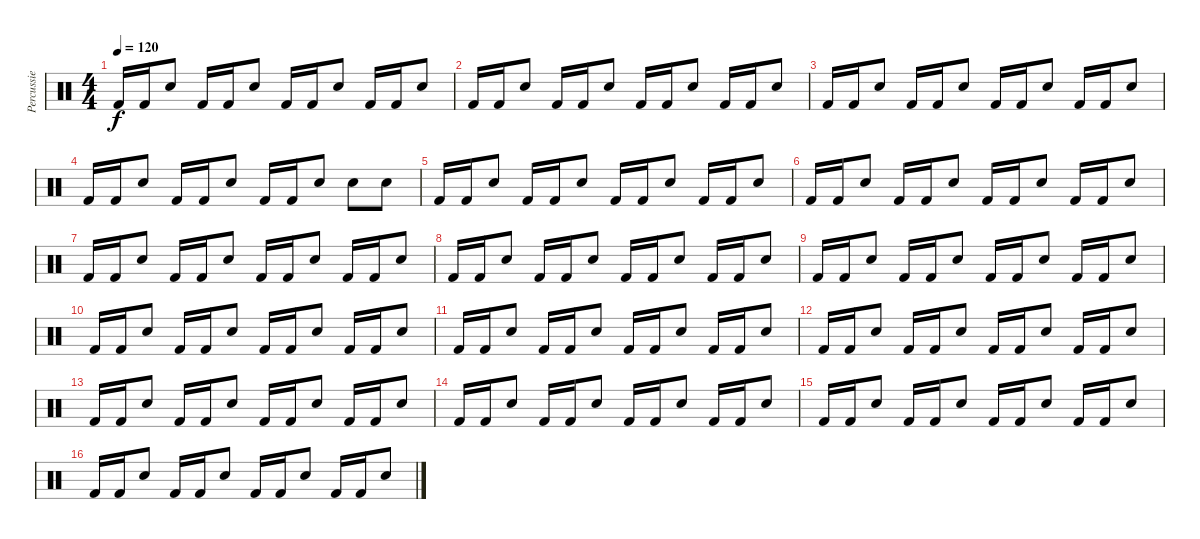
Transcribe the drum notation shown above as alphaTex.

\track ("Percussie" "Percussie") {instrument percussion}
\staff {score}
\articulation defaults
\ts (4 4)
\tempo 120
\clef neutral
\ks c "Kick (hit) 2".16{dy f} "Kick (hit) 2".16 "Electric Snare (hit)".8 "Kick (hit) 2".16 "Kick (hit) 2".16 "Electric Snare (hit)".8 "Kick (hit) 2".16 "Kick (hit) 2".16 "Electric Snare (hit)".8 "Kick (hit) 2".16 "Kick (hit) 2".16 "Electric Snare (hit)".8
|
"Kick (hit) 2".16 "Kick (hit) 2".16 "Electric Snare (hit)".8 "Kick (hit) 2".16 "Kick (hit) 2".16 "Electric Snare (hit)".8 "Kick (hit) 2".16 "Kick (hit) 2".16 "Electric Snare (hit)".8 "Kick (hit) 2".16 "Kick (hit) 2".16 "Electric Snare (hit)".8 |
"Kick (hit) 2".16 "Kick (hit) 2".16 "Electric Snare (hit)".8 "Kick (hit) 2".16 "Kick (hit) 2".16 "Electric Snare (hit)".8 "Kick (hit) 2".16 "Kick (hit) 2".16 "Electric Snare (hit)".8 "Kick (hit) 2".16 "Kick (hit) 2".16 "Electric Snare (hit)".8 |
"Kick (hit) 2".16 "Kick (hit) 2".16 "Electric Snare (hit)".8 "Kick (hit) 2".16 "Kick (hit) 2".16 "Electric Snare (hit)".8 "Kick (hit) 2".16 "Kick (hit) 2".16 "Electric Snare (hit)".8 "Electric Snare (hit)".8 "Electric Snare (hit)".8 |
"Kick (hit) 2".16 "Kick (hit) 2".16 "Electric Snare (hit)".8 "Kick (hit) 2".16 "Kick (hit) 2".16 "Electric Snare (hit)".8 "Kick (hit) 2".16 "Kick (hit) 2".16 "Electric Snare (hit)".8 "Kick (hit) 2".16 "Kick (hit) 2".16 "Electric Snare (hit)".8 |
"Kick (hit) 2".16 "Kick (hit) 2".16 "Electric Snare (hit)".8 "Kick (hit) 2".16 "Kick (hit) 2".16 "Electric Snare (hit)".8 "Kick (hit) 2".16 "Kick (hit) 2".16 "Electric Snare (hit)".8 "Kick (hit) 2".16 "Kick (hit) 2".16 "Electric Snare (hit)".8 |
"Kick (hit) 2".16 "Kick (hit) 2".16 "Electric Snare (hit)".8 "Kick (hit) 2".16 "Kick (hit) 2".16 "Electric Snare (hit)".8 "Kick (hit) 2".16 "Kick (hit) 2".16 "Electric Snare (hit)".8 "Kick (hit) 2".16 "Kick (hit) 2".16 "Electric Snare (hit)".8 |
"Kick (hit) 2".16 "Kick (hit) 2".16 "Electric Snare (hit)".8 "Kick (hit) 2".16 "Kick (hit) 2".16 "Electric Snare (hit)".8 "Kick (hit) 2".16 "Kick (hit) 2".16 "Electric Snare (hit)".8 "Kick (hit) 2".16 "Kick (hit) 2".16 "Electric Snare (hit)".8 |
"Kick (hit) 2".16 "Kick (hit) 2".16 "Electric Snare (hit)".8 "Kick (hit) 2".16 "Kick (hit) 2".16 "Electric Snare (hit)".8 "Kick (hit) 2".16 "Kick (hit) 2".16 "Electric Snare (hit)".8 "Kick (hit) 2".16 "Kick (hit) 2".16 "Electric Snare (hit)".8 |
"Kick (hit) 2".16 "Kick (hit) 2".16 "Electric Snare (hit)".8 "Kick (hit) 2".16 "Kick (hit) 2".16 "Electric Snare (hit)".8 "Kick (hit) 2".16 "Kick (hit) 2".16 "Electric Snare (hit)".8 "Kick (hit) 2".16 "Kick (hit) 2".16 "Electric Snare (hit)".8 |
"Kick (hit) 2".16 "Kick (hit) 2".16 "Electric Snare (hit)".8 "Kick (hit) 2".16 "Kick (hit) 2".16 "Electric Snare (hit)".8 "Kick (hit) 2".16 "Kick (hit) 2".16 "Electric Snare (hit)".8 "Kick (hit) 2".16 "Kick (hit) 2".16 "Electric Snare (hit)".8 |
"Kick (hit) 2".16 "Kick (hit) 2".16 "Electric Snare (hit)".8 "Kick (hit) 2".16 "Kick (hit) 2".16 "Electric Snare (hit)".8 "Kick (hit) 2".16 "Kick (hit) 2".16 "Electric Snare (hit)".8 "Kick (hit) 2".16 "Kick (hit) 2".16 "Electric Snare (hit)".8 |
"Kick (hit) 2".16 "Kick (hit) 2".16 "Electric Snare (hit)".8 "Kick (hit) 2".16 "Kick (hit) 2".16 "Electric Snare (hit)".8 "Kick (hit) 2".16 "Kick (hit) 2".16 "Electric Snare (hit)".8 "Kick (hit) 2".16 "Kick (hit) 2".16 "Electric Snare (hit)".8 |
"Kick (hit) 2".16 "Kick (hit) 2".16 "Electric Snare (hit)".8 "Kick (hit) 2".16 "Kick (hit) 2".16 "Electric Snare (hit)".8 "Kick (hit) 2".16 "Kick (hit) 2".16 "Electric Snare (hit)".8 "Kick (hit) 2".16 "Kick (hit) 2".16 "Electric Snare (hit)".8 |
"Kick (hit) 2".16 "Kick (hit) 2".16 "Electric Snare (hit)".8 "Kick (hit) 2".16 "Kick (hit) 2".16 "Electric Snare (hit)".8 "Kick (hit) 2".16 "Kick (hit) 2".16 "Electric Snare (hit)".8 "Kick (hit) 2".16 "Kick (hit) 2".16 "Electric Snare (hit)".8 |
"Kick (hit) 2".16 "Kick (hit) 2".16 "Electric Snare (hit)".8 "Kick (hit) 2".16 "Kick (hit) 2".16 "Electric Snare (hit)".8 "Kick (hit) 2".16 "Kick (hit) 2".16 "Electric Snare (hit)".8 "Kick (hit) 2".16 "Kick (hit) 2".16 "Electric Snare (hit)".8
